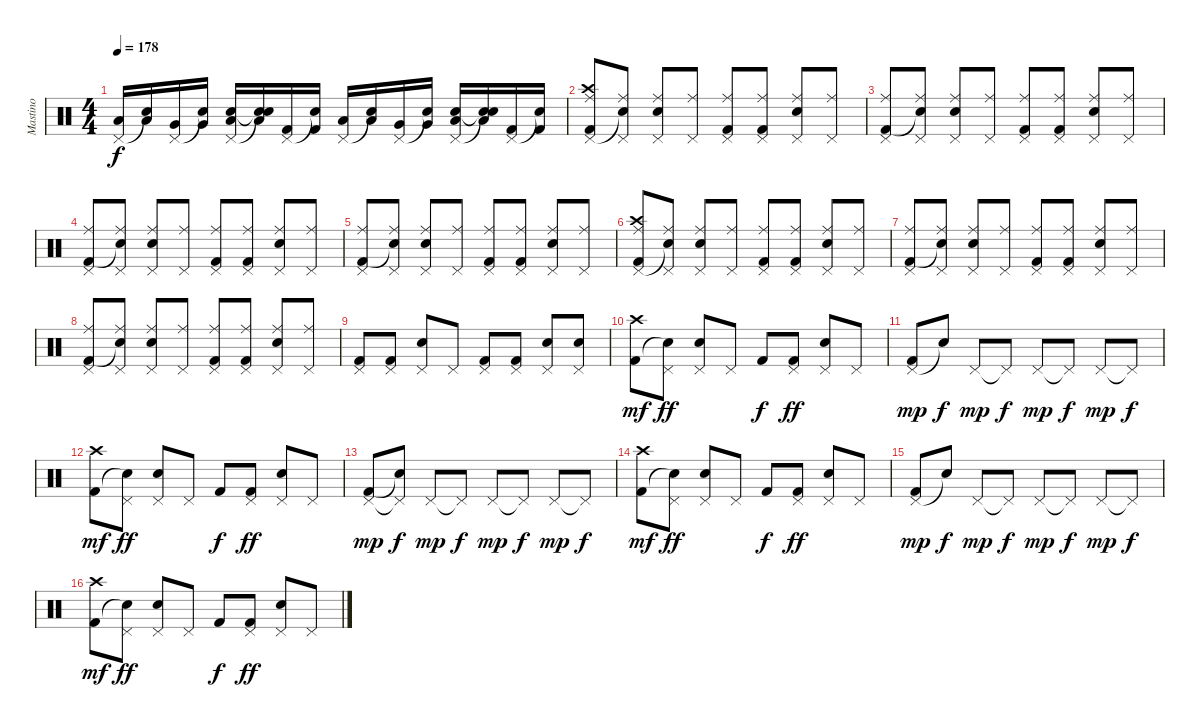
\track ("Mastino" "Mastino") {instrument percussion}
\staff {score}
\articulation defaults
\ts (4 4)
\tempo 178
\clef neutral
\ks c
("Pedal Hi-Hat (hit)" "Low Tom (hit)").16{dy f} ("Snare (hit)"{t} "Low Tom (hit)").16 ("Pedal Hi-Hat (hit)" "Very Low Tom (hit)").16 ("Snare (hit)"{t} "Very Low Tom (hit)").16 ("Pedal Hi-Hat (hit)" "Electric Snare (hit)" "Low Floor Tom (hit)").16 ("Snare (hit)"{t} "Electric Snare (hit)"{t} "Low Floor Tom (hit)").16 ("Pedal Hi-Hat (hit)" "Kick (hit) 2").16 ("Snare (hit)"{t} "Kick (hit) 2").16 ("Pedal Hi-Hat (hit)" "Low Tom (hit)").16 ("Snare (hit)"{t} "Low Tom (hit)").16 ("Pedal Hi-Hat (hit)" "Very Low Tom (hit)").16 ("Snare (hit)"{t} "Very Low Tom (hit)").16 ("Pedal Hi-Hat (hit)" "Electric Snare (hit)" "Low Floor Tom (hit)").16 ("Snare (hit)"{t} "Electric Snare (hit)"{t} "Low Floor Tom (hit)").16 ("Pedal Hi-Hat (hit)" "Kick (hit) 2").16 ("Snare (hit)"{t} "Kick (hit) 2").16 |
("Crash high (hit)" "Ride (middle)" "Pedal Hi-Hat (hit)" "Kick (hit) 2").8 ("Ride (middle)" "Pedal Hi-Hat (hit)" "Snare (hit)"{t}).8 ("Ride (middle)" "Pedal Hi-Hat (hit)" "Electric Snare (hit)").8 ("Ride (middle)" "Pedal Hi-Hat (hit)").8 ("Ride (middle)" "Pedal Hi-Hat (hit)" "Kick (hit) 2").8 ("Ride (middle)" "Pedal Hi-Hat (hit)" "Kick (hit) 2").8 ("Ride (middle)" "Pedal Hi-Hat (hit)" "Electric Snare (hit)").8 ("Ride (middle)" "Pedal Hi-Hat (hit)").8 |
("Ride (middle)" "Pedal Hi-Hat (hit)" "Kick (hit) 2").8 ("Ride (middle)" "Pedal Hi-Hat (hit)" "Snare (hit)"{t}).8 ("Ride (middle)" "Pedal Hi-Hat (hit)" "Electric Snare (hit)").8 ("Ride (middle)" "Pedal Hi-Hat (hit)").8 ("Ride (middle)" "Pedal Hi-Hat (hit)" "Kick (hit) 2").8 ("Ride (middle)" "Pedal Hi-Hat (hit)" "Kick (hit) 2").8 ("Ride (middle)" "Pedal Hi-Hat (hit)" "Electric Snare (hit)").8 ("Ride (middle)" "Pedal Hi-Hat (hit)").8 |
("Ride (middle)" "Pedal Hi-Hat (hit)" "Kick (hit) 2").8 ("Ride (middle)" "Pedal Hi-Hat (hit)" "Snare (hit)"{t}).8 ("Ride (middle)" "Pedal Hi-Hat (hit)" "Electric Snare (hit)").8 ("Ride (middle)" "Pedal Hi-Hat (hit)").8 ("Ride (middle)" "Pedal Hi-Hat (hit)" "Kick (hit) 2").8 ("Ride (middle)" "Pedal Hi-Hat (hit)" "Kick (hit) 2").8 ("Ride (middle)" "Pedal Hi-Hat (hit)" "Electric Snare (hit)").8 ("Ride (middle)" "Pedal Hi-Hat (hit)").8 |
("Ride (middle)" "Pedal Hi-Hat (hit)" "Kick (hit) 2").8 ("Ride (middle)" "Pedal Hi-Hat (hit)" "Snare (hit)"{t}).8 ("Ride (middle)" "Pedal Hi-Hat (hit)" "Electric Snare (hit)").8 ("Ride (middle)" "Pedal Hi-Hat (hit)").8 ("Ride (middle)" "Pedal Hi-Hat (hit)" "Kick (hit) 2").8 ("Ride (middle)" "Pedal Hi-Hat (hit)" "Kick (hit) 2").8 ("Ride (middle)" "Pedal Hi-Hat (hit)" "Electric Snare (hit)").8 ("Ride (middle)" "Pedal Hi-Hat (hit)").8 |
("Crash high (hit)" "Ride (middle)" "Pedal Hi-Hat (hit)" "Kick (hit) 2").8 ("Ride (middle)" "Pedal Hi-Hat (hit)" "Snare (hit)"{t}).8 ("Ride (middle)" "Pedal Hi-Hat (hit)" "Electric Snare (hit)").8 ("Ride (middle)" "Pedal Hi-Hat (hit)").8 ("Ride (middle)" "Pedal Hi-Hat (hit)" "Kick (hit) 2").8 ("Ride (middle)" "Pedal Hi-Hat (hit)" "Kick (hit) 2").8 ("Ride (middle)" "Pedal Hi-Hat (hit)" "Electric Snare (hit)").8 ("Ride (middle)" "Pedal Hi-Hat (hit)").8 |
("Ride (middle)" "Pedal Hi-Hat (hit)" "Kick (hit) 2").8 ("Ride (middle)" "Pedal Hi-Hat (hit)" "Snare (hit)"{t}).8 ("Ride (middle)" "Pedal Hi-Hat (hit)" "Electric Snare (hit)").8 ("Ride (middle)" "Pedal Hi-Hat (hit)").8 ("Ride (middle)" "Pedal Hi-Hat (hit)" "Kick (hit) 2").8 ("Ride (middle)" "Pedal Hi-Hat (hit)" "Kick (hit) 2").8 ("Ride (middle)" "Pedal Hi-Hat (hit)" "Electric Snare (hit)").8 ("Ride (middle)" "Pedal Hi-Hat (hit)").8 |
("Ride (middle)" "Pedal Hi-Hat (hit)" "Kick (hit) 2").8 ("Ride (middle)" "Pedal Hi-Hat (hit)" "Snare (hit)"{t}).8 ("Ride (middle)" "Pedal Hi-Hat (hit)" "Electric Snare (hit)").8 ("Ride (middle)" "Pedal Hi-Hat (hit)").8 ("Ride (middle)" "Pedal Hi-Hat (hit)" "Kick (hit) 2").8 ("Ride (middle)" "Pedal Hi-Hat (hit)" "Kick (hit) 2").8 ("Ride (middle)" "Pedal Hi-Hat (hit)" "Electric Snare (hit)").8 ("Ride (middle)" "Pedal Hi-Hat (hit)").8 |
("Pedal Hi-Hat (hit)" "Kick (hit) 2").8 ("Pedal Hi-Hat (hit)" "Kick (hit) 2").8 ("Pedal Hi-Hat (hit)" "Electric Snare (hit)").8 "Pedal Hi-Hat (hit)".8 ("Pedal Hi-Hat (hit)" "Kick (hit) 2").8 ("Pedal Hi-Hat (hit)" "Kick (hit) 2").8 ("Pedal Hi-Hat (hit)" "Electric Snare (hit)").8 ("Pedal Hi-Hat (hit)" "Electric Snare (hit)").8 |
("Crash high (hit)" "Kick (hit) 2").8{dy mf} ("Pedal Hi-Hat (hit)" "Snare (hit)"{t}).8{dy ff} ("Pedal Hi-Hat (hit)" "Electric Snare (hit)").8 "Pedal Hi-Hat (hit)".8 "Kick (hit) 2".8{dy f} ("Pedal Hi-Hat (hit)" "Kick (hit) 2").8{dy ff} ("Pedal Hi-Hat (hit)" "Electric Snare (hit)").8 "Pedal Hi-Hat (hit)".8 |
("Pedal Hi-Hat (hit)" "Kick (hit) 2").8{dy mp} "Snare (hit)"{t}.8{dy f} "Pedal Hi-Hat (hit)".8{dy mp} "Pedal Hi-Hat (hit)"{t}.8{dy f} "Pedal Hi-Hat (hit)".8{dy mp} "Pedal Hi-Hat (hit)"{t}.8{dy f} "Pedal Hi-Hat (hit)".8{dy mp} "Pedal Hi-Hat (hit)"{t}.8{dy f} |
("Crash high (hit)" "Kick (hit) 2").8{dy mf} ("Pedal Hi-Hat (hit)" "Snare (hit)"{t}).8{dy ff} ("Pedal Hi-Hat (hit)" "Electric Snare (hit)").8 "Pedal Hi-Hat (hit)".8 "Kick (hit) 2".8{dy f} ("Pedal Hi-Hat (hit)" "Kick (hit) 2").8{dy ff} ("Pedal Hi-Hat (hit)" "Electric Snare (hit)").8 "Pedal Hi-Hat (hit)".8 |
("Pedal Hi-Hat (hit)" "Kick (hit) 2").8{dy mp} ("Pedal Hi-Hat (hit)"{t} "Snare (hit)"{t}).8{dy f} "Pedal Hi-Hat (hit)".8{dy mp} "Pedal Hi-Hat (hit)"{t}.8{dy f} "Pedal Hi-Hat (hit)".8{dy mp} "Pedal Hi-Hat (hit)"{t}.8{dy f} "Pedal Hi-Hat (hit)".8{dy mp} "Pedal Hi-Hat (hit)"{t}.8{dy f} |
("Crash high (hit)" "Kick (hit) 2").8{dy mf} ("Pedal Hi-Hat (hit)" "Snare (hit)"{t}).8{dy ff} ("Pedal Hi-Hat (hit)" "Electric Snare (hit)").8 "Pedal Hi-Hat (hit)".8 "Kick (hit) 2".8{dy f} ("Pedal Hi-Hat (hit)" "Kick (hit) 2").8{dy ff} ("Pedal Hi-Hat (hit)" "Electric Snare (hit)").8 "Pedal Hi-Hat (hit)".8 |
("Pedal Hi-Hat (hit)" "Kick (hit) 2").8{dy mp} "Snare (hit)"{t}.8{dy f} "Pedal Hi-Hat (hit)".8{dy mp} "Pedal Hi-Hat (hit)"{t}.8{dy f} "Pedal Hi-Hat (hit)".8{dy mp} "Pedal Hi-Hat (hit)"{t}.8{dy f} "Pedal Hi-Hat (hit)".8{dy mp} "Pedal Hi-Hat (hit)"{t}.8{dy f} |
("Crash high (hit)" "Kick (hit) 2").8{dy mf} ("Pedal Hi-Hat (hit)" "Snare (hit)"{t}).8{dy ff} ("Pedal Hi-Hat (hit)" "Electric Snare (hit)").8 "Pedal Hi-Hat (hit)".8 "Kick (hit) 2".8{dy f} ("Pedal Hi-Hat (hit)" "Kick (hit) 2").8{dy ff} ("Pedal Hi-Hat (hit)" "Electric Snare (hit)").8 "Pedal Hi-Hat (hit)".8
